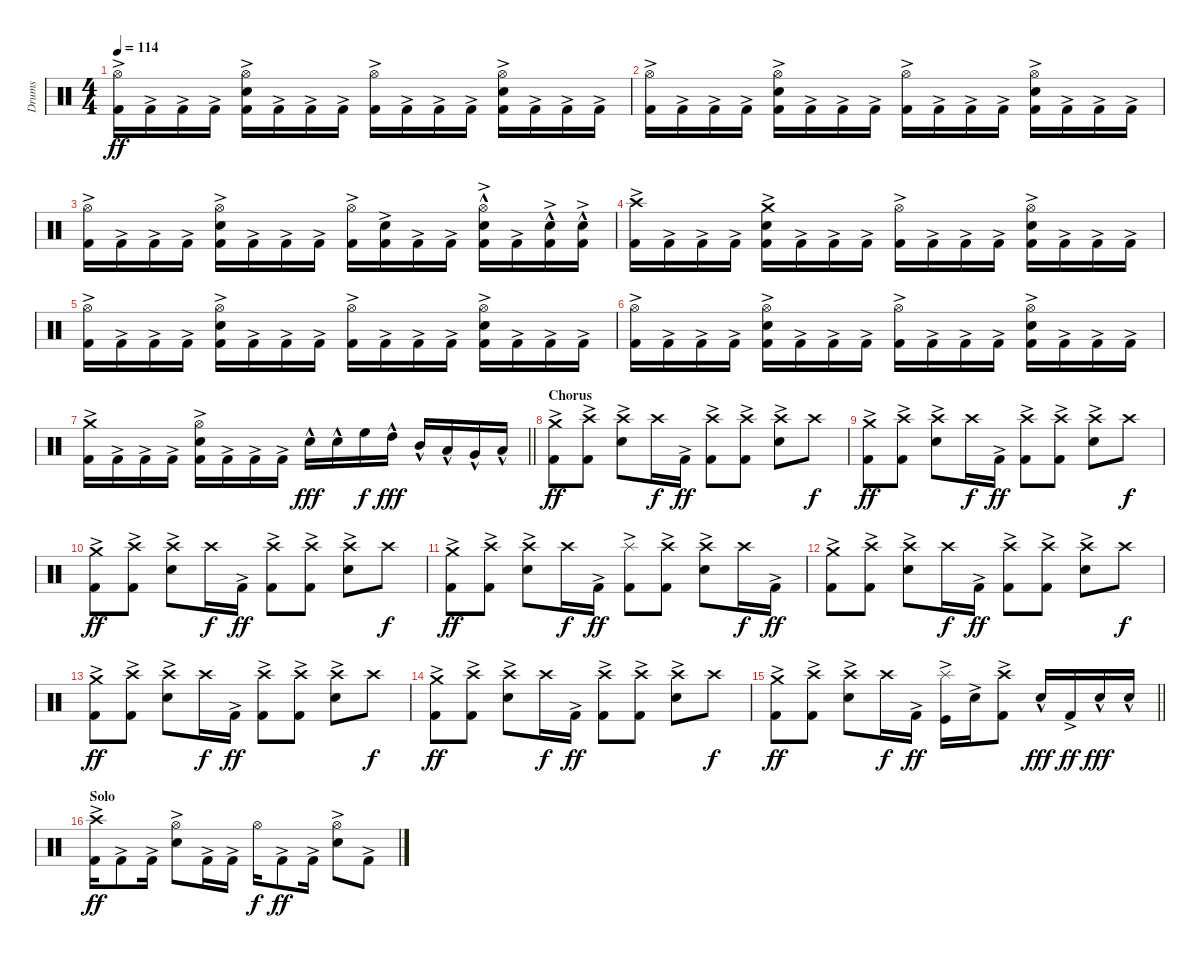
\track ("Drums" "Drums") {instrument percussion}
\staff {score}
\articulation defaults
\ts (4 4)
\tempo 114
\clef neutral
\ks c
("Hi-Hat (open)" "Kick (hit) 2"{ac}).16{dy ff} "Kick (hit) 2"{ac}.16 "Kick (hit) 2"{ac}.16 "Kick (hit) 2"{ac}.16 ("Hi-Hat (open)" "Electric Snare (hit)"{ac} "Kick (hit) 2"{ac}).16 "Kick (hit) 2"{ac}.16 "Kick (hit) 2"{ac}.16 "Kick (hit) 2"{ac}.16 ("Hi-Hat (open)" "Kick (hit) 2"{ac}).16 "Kick (hit) 2"{ac}.16 "Kick (hit) 2"{ac}.16 "Kick (hit) 2"{ac}.16 ("Hi-Hat (open)" "Electric Snare (hit)"{ac} "Kick (hit) 2"{ac}).16 "Kick (hit) 2"{ac}.16 "Kick (hit) 2"{ac}.16 "Kick (hit) 2"{ac}.16 |
("Hi-Hat (open)" "Kick (hit) 2"{ac}).16 "Kick (hit) 2"{ac}.16 "Kick (hit) 2"{ac}.16 "Kick (hit) 2"{ac}.16 ("Hi-Hat (open)" "Electric Snare (hit)"{ac} "Kick (hit) 2"{ac}).16 "Kick (hit) 2"{ac}.16 "Kick (hit) 2"{ac}.16 "Kick (hit) 2"{ac}.16 ("Hi-Hat (open)" "Kick (hit) 2"{ac}).16 "Kick (hit) 2"{ac}.16 "Kick (hit) 2"{ac}.16 "Kick (hit) 2"{ac}.16 ("Hi-Hat (open)" "Electric Snare (hit)"{ac} "Kick (hit) 2"{ac}).16 "Kick (hit) 2"{ac}.16 "Kick (hit) 2"{ac}.16 "Kick (hit) 2"{ac}.16 |
("Hi-Hat (open)" "Kick (hit) 2"{ac}).16 "Kick (hit) 2"{ac}.16 "Kick (hit) 2"{ac}.16 "Kick (hit) 2"{ac}.16 ("Hi-Hat (open)" "Electric Snare (hit)"{ac} "Kick (hit) 2"{ac}).16 "Kick (hit) 2"{ac}.16 "Kick (hit) 2"{ac}.16 "Kick (hit) 2"{ac}.16 ("Hi-Hat (open)" "Kick (hit) 2"{ac}).16 ("Electric Snare (hit)"{ac} "Kick (hit) 2"{ac}).16 "Kick (hit) 2"{ac}.16 "Kick (hit) 2"{ac}.16 ("Hi-Hat (open)" "Electric Snare (hit)"{hac} "Kick (hit) 2"{ac}).16 "Kick (hit) 2"{ac}.16 ("Electric Snare (hit)"{hac} "Kick (hit) 2"{ac}).16 ("Electric Snare (hit)"{hac} "Kick (hit) 2"{ac}).16 |
("Crash high (hit)" "Kick (hit) 2"{ac}).16 "Kick (hit) 2"{ac}.16 "Kick (hit) 2"{ac}.16 "Kick (hit) 2"{ac}.16 ("Crash medium (hit)" "Electric Snare (hit)"{ac} "Kick (hit) 2"{ac}).16 "Kick (hit) 2"{ac}.16 "Kick (hit) 2"{ac}.16 "Kick (hit) 2"{ac}.16 ("Hi-Hat (open)" "Kick (hit) 2"{ac}).16 "Kick (hit) 2"{ac}.16 "Kick (hit) 2"{ac}.16 "Kick (hit) 2"{ac}.16 ("Hi-Hat (open)" "Electric Snare (hit)"{ac} "Kick (hit) 2"{ac}).16 "Kick (hit) 2"{ac}.16 "Kick (hit) 2"{ac}.16 "Kick (hit) 2"{ac}.16 |
("Hi-Hat (open)" "Kick (hit) 2"{ac}).16 "Kick (hit) 2"{ac}.16 "Kick (hit) 2"{ac}.16 "Kick (hit) 2"{ac}.16 ("Hi-Hat (open)" "Electric Snare (hit)"{ac} "Kick (hit) 2"{ac}).16 "Kick (hit) 2"{ac}.16 "Kick (hit) 2"{ac}.16 "Kick (hit) 2"{ac}.16 ("Hi-Hat (open)" "Kick (hit) 2"{ac}).16 "Kick (hit) 2"{ac}.16 "Kick (hit) 2"{ac}.16 "Kick (hit) 2"{ac}.16 ("Hi-Hat (open)" "Electric Snare (hit)"{ac} "Kick (hit) 2"{ac}).16 "Kick (hit) 2"{ac}.16 "Kick (hit) 2"{ac}.16 "Kick (hit) 2"{ac}.16 |
("Hi-Hat (open)" "Kick (hit) 2"{ac}).16 "Kick (hit) 2"{ac}.16 "Kick (hit) 2"{ac}.16 "Kick (hit) 2"{ac}.16 ("Hi-Hat (open)" "Electric Snare (hit)"{ac} "Kick (hit) 2"{ac}).16 "Kick (hit) 2"{ac}.16 "Kick (hit) 2"{ac}.16 "Kick (hit) 2"{ac}.16 ("Hi-Hat (open)" "Kick (hit) 2"{ac}).16 "Kick (hit) 2"{ac}.16 "Kick (hit) 2"{ac}.16 "Kick (hit) 2"{ac}.16 ("Hi-Hat (open)" "Electric Snare (hit)"{ac} "Kick (hit) 2"{ac}).16 "Kick (hit) 2"{ac}.16 "Kick (hit) 2"{ac}.16 "Kick (hit) 2"{ac}.16 |
\barLineRight lightlight
("Crash medium (hit)" "Kick (hit) 2"{ac}).16 "Kick (hit) 2"{ac}.16 "Kick (hit) 2"{ac}.16 "Kick (hit) 2"{ac}.16 ("Hi-Hat (open)" "Electric Snare (hit)"{ac} "Kick (hit) 2"{ac}).16 "Kick (hit) 2"{ac}.16 "Kick (hit) 2"{ac}.16 "Kick (hit) 2"{ac}.16 "Electric Snare (hit)"{hac}.16{dy fff} "Electric Snare (hit)"{hac}.16 "High Floor Tom (hit)".16{dy f} "High Tom (hit)"{hac}.16{dy fff} "Mid Tom (hit)"{hac}.16 "Low Tom (hit)"{hac}.16 "Very Low Tom (hit)"{hac}.16 "Low Floor Tom (hit)"{hac}.16 |
\section ("" "Chorus")
("Crash medium (hit)" "Kick (hit) 2"{ac}).8{dy ff} ("Crash high (hit)" "Kick (hit) 2"{ac}).8 ("Crash high (hit)" "Electric Snare (hit)"{ac}).8 "Crash high (hit)".16{dy f} "Kick (hit) 2"{ac}.16{dy ff} ("Crash high (hit)" "Kick (hit) 2"{ac}).8 ("Crash high (hit)" "Kick (hit) 2"{ac}).8 ("Crash high (hit)" "Electric Snare (hit)"{ac}).8 "Crash high (hit)".8{dy f} |
("Crash medium (hit)" "Kick (hit) 2"{ac}).8{dy ff} ("Crash high (hit)" "Kick (hit) 2"{ac}).8 ("Crash high (hit)" "Electric Snare (hit)"{ac}).8 "Crash high (hit)".16{dy f} "Kick (hit) 2"{ac}.16{dy ff} ("Crash high (hit)" "Kick (hit) 2"{ac}).8 ("Crash high (hit)" "Kick (hit) 2"{ac}).8 ("Crash high (hit)" "Electric Snare (hit)"{ac}).8 "Crash high (hit)".8{dy f} |
("Crash medium (hit)" "Kick (hit) 2"{ac}).8{dy ff} ("Crash high (hit)" "Kick (hit) 2"{ac}).8 ("Crash high (hit)" "Electric Snare (hit)"{ac}).8 "Crash high (hit)".16{dy f} "Kick (hit) 2"{ac}.16{dy ff} ("Crash high (hit)" "Kick (hit) 2"{ac}).8 ("Crash high (hit)" "Kick (hit) 2"{ac}).8 ("Crash high (hit)" "Electric Snare (hit)"{ac}).8 "Crash high (hit)".8{dy f} |
("Crash medium (hit)" "Kick (hit) 2"{ac}).8{dy ff} ("Crash high (hit)" "Kick (hit) 2"{ac}).8 ("Crash high (hit)" "Electric Snare (hit)"{ac}).8 "Crash high (hit)".16{dy f} "Kick (hit) 2"{ac}.16{dy ff} ("Splash (hit)" "Kick (hit) 2"{ac}).8 ("Crash high (hit)" "Kick (hit) 2"{ac}).8 ("Crash high (hit)" "Electric Snare (hit)"{ac}).8 "Crash high (hit)".16{dy f} "Kick (hit) 2"{ac}.16{dy ff} |
("Crash medium (hit)" "Kick (hit) 2"{ac}).8 ("Crash high (hit)" "Kick (hit) 2"{ac}).8 ("Crash high (hit)" "Electric Snare (hit)"{ac}).8 "Crash high (hit)".16{dy f} "Kick (hit) 2"{ac}.16{dy ff} ("Crash high (hit)" "Kick (hit) 2"{ac}).8 ("Crash high (hit)" "Kick (hit) 2"{ac}).8 ("Crash high (hit)" "Electric Snare (hit)"{ac}).8 "Crash high (hit)".8{dy f} |
("Crash medium (hit)" "Kick (hit) 2"{ac}).8{dy ff} ("Crash high (hit)" "Kick (hit) 2"{ac}).8 ("Crash high (hit)" "Electric Snare (hit)"{ac}).8 "Crash high (hit)".16{dy f} "Kick (hit) 2"{ac}.16{dy ff} ("Crash high (hit)" "Kick (hit) 2"{ac}).8 ("Crash high (hit)" "Kick (hit) 2"{ac}).8 ("Crash high (hit)" "Electric Snare (hit)"{ac}).8 "Crash high (hit)".8{dy f} |
("Crash medium (hit)" "Kick (hit) 2"{ac}).8{dy ff} ("Crash high (hit)" "Kick (hit) 2"{ac}).8 ("Crash high (hit)" "Electric Snare (hit)"{ac}).8 "Crash high (hit)".16{dy f} "Kick (hit) 2"{ac}.16{dy ff} ("Crash high (hit)" "Kick (hit) 2"{ac}).8 ("Crash high (hit)" "Kick (hit) 2"{ac}).8 ("Crash high (hit)" "Electric Snare (hit)"{ac}).8 "Crash high (hit)".8{dy f} |
\barLineRight lightlight
("Crash medium (hit)" "Kick (hit) 2"{ac}).8{dy ff} ("Crash high (hit)" "Kick (hit) 2"{ac}).8 ("Crash high (hit)" "Electric Snare (hit)"{ac}).8 "Crash high (hit)".16{dy f} "Kick (hit) 2"{ac}.16{dy ff} ("Splash (hit)" "Kick (hit)"{ac}).16 "Electric Snare (hit)"{ac}.16 ("Crash high (hit)" "Kick (hit) 2"{ac}).8 "Electric Snare (hit)"{hac}.16{dy fff} "Kick (hit) 2"{ac}.16{dy ff} "Electric Snare (hit)"{hac}.16{dy fff} "Electric Snare (hit)"{hac}.16 |
\section ("" "Solo")
("Crash high (hit)" "Kick (hit) 2"{ac}).16{dy ff} "Kick (hit) 2"{ac}.8 "Kick (hit) 2"{ac}.16 ("Hi-Hat (open)" "Electric Snare (hit)"{ac}).8 "Kick (hit) 2"{ac}.16 "Kick (hit) 2"{ac}.16 "Hi-Hat (open)".16{dy f} "Kick (hit) 2"{ac}.8{dy ff} "Kick (hit) 2"{ac}.16 ("Hi-Hat (open)" "Electric Snare (hit)"{ac}).8 "Kick (hit) 2"{ac}.8
